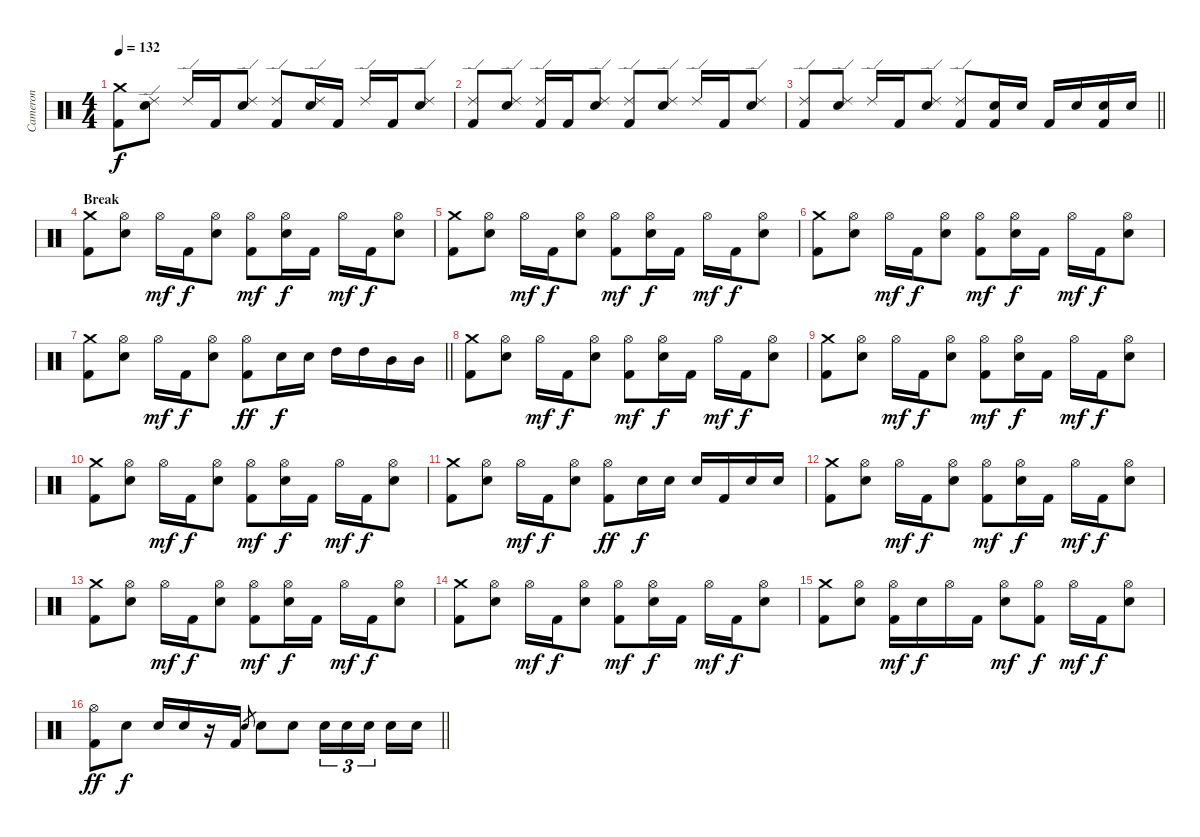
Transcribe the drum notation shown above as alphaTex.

\track ("Cameron" "Cameron") {instrument percussion}
\staff {score}
\articulation defaults
\ts (4 4)
\tempo 132
\clef neutral
\ks c
("Crash medium (hit)" "Kick (hit) 2").8{dy f} ("Ride (edge) 2" "Snare (hit) 2").8 "Ride (edge) 2".16 "Kick (hit) 2".16 ("Ride (edge) 2" "Snare (hit) 2").8 ("Ride (edge) 2" "Kick (hit) 2").8 ("Ride (edge) 2" "Snare (hit) 2").16 "Kick (hit) 2".16 "Ride (edge) 2".16 "Kick (hit) 2".16 ("Ride (edge) 2" "Snare (hit) 2").8 |
("Ride (edge) 2" "Kick (hit) 2").8 ("Ride (edge) 2" "Snare (hit) 2").8 ("Ride (edge) 2" "Kick (hit) 2").16 "Kick (hit) 2".16 ("Ride (edge) 2" "Snare (hit) 2").8 ("Ride (edge) 2" "Kick (hit) 2").8 ("Ride (edge) 2" "Snare (hit) 2").8 "Ride (edge) 2".16 "Kick (hit) 2".16 ("Ride (edge) 2" "Snare (hit) 2").8 |
\barLineRight lightlight
("Ride (edge) 2" "Kick (hit) 2").8 ("Ride (edge) 2" "Snare (hit) 2").8 "Ride (edge) 2".16 "Kick (hit) 2".16 ("Ride (edge) 2" "Snare (hit) 2").8 ("Ride (edge) 2" "Kick (hit) 2").8 ("Snare (hit) 2" "Kick (hit) 2").16 "Snare (hit) 2".16 "Kick (hit) 2".16 "Snare (hit) 2".16 ("Snare (hit) 2" "Kick (hit) 2").16 "Snare (hit) 2".16 |
\section ("" "Break")
("Crash medium (hit)" "Kick (hit) 2").8 ("Hi-Hat (open)" "Snare (hit) 2").8 "Hi-Hat (open)".16{dy mf} "Kick (hit) 2".16{dy f} ("Hi-Hat (open)" "Snare (hit) 2").8 ("Hi-Hat (open)" "Kick (hit) 2").8{dy mf} ("Hi-Hat (open)" "Snare (hit) 2").16{dy f} "Kick (hit) 2".16 "Hi-Hat (open)".16{dy mf} "Kick (hit) 2".16{dy f} ("Hi-Hat (open)" "Snare (hit) 2").8 |
("Crash medium (hit)" "Kick (hit) 2").8 ("Hi-Hat (open)" "Snare (hit) 2").8 "Hi-Hat (open)".16{dy mf} "Kick (hit) 2".16{dy f} ("Hi-Hat (open)" "Snare (hit) 2").8 ("Hi-Hat (open)" "Kick (hit) 2").8{dy mf} ("Hi-Hat (open)" "Snare (hit) 2").16{dy f} "Kick (hit) 2".16 "Hi-Hat (open)".16{dy mf} "Kick (hit) 2".16{dy f} ("Hi-Hat (open)" "Snare (hit) 2").8 |
("Crash medium (hit)" "Kick (hit) 2").8 ("Hi-Hat (open)" "Snare (hit) 2").8 "Hi-Hat (open)".16{dy mf} "Kick (hit) 2".16{dy f} ("Hi-Hat (open)" "Snare (hit) 2").8 ("Hi-Hat (open)" "Kick (hit) 2").8{dy mf} ("Hi-Hat (open)" "Snare (hit) 2").16{dy f} "Kick (hit) 2".16 "Hi-Hat (open)".16{dy mf} "Kick (hit) 2".16{dy f} ("Hi-Hat (open)" "Snare (hit) 2").8 |
\barLineRight lightlight
("Crash medium (hit)" "Kick (hit) 2").8 ("Hi-Hat (open)" "Snare (hit) 2").8 "Hi-Hat (open)".16{dy mf} "Kick (hit) 2".16{dy f} ("Hi-Hat (open)" "Snare (hit) 2").8 ("Hi-Hat (open)" "Kick (hit) 2").8{dy ff} "Snare (hit) 2".16{dy f} "Snare (hit) 2".16 "High Tom (hit)".16 "High Tom (hit)".16 "Mid Tom (hit)".16 "Mid Tom (hit)".16 |
\section ("" "")
("Crash medium (hit)" "Kick (hit) 2").8 ("Hi-Hat (open)" "Snare (hit) 2").8 "Hi-Hat (open)".16{dy mf} "Kick (hit) 2".16{dy f} ("Hi-Hat (open)" "Snare (hit) 2").8 ("Hi-Hat (open)" "Kick (hit) 2").8{dy mf} ("Hi-Hat (open)" "Snare (hit) 2").16{dy f} "Kick (hit) 2".16 "Hi-Hat (open)".16{dy mf} "Kick (hit) 2".16{dy f} ("Hi-Hat (open)" "Snare (hit) 2").8 |
("Crash medium (hit)" "Kick (hit) 2").8 ("Hi-Hat (open)" "Snare (hit) 2").8 "Hi-Hat (open)".16{dy mf} "Kick (hit) 2".16{dy f} ("Hi-Hat (open)" "Snare (hit) 2").8 ("Hi-Hat (open)" "Kick (hit) 2").8{dy mf} ("Hi-Hat (open)" "Snare (hit) 2").16{dy f} "Kick (hit) 2".16 "Hi-Hat (open)".16{dy mf} "Kick (hit) 2".16{dy f} ("Hi-Hat (open)" "Snare (hit) 2").8 |
("Crash medium (hit)" "Kick (hit) 2").8 ("Hi-Hat (open)" "Snare (hit) 2").8 "Hi-Hat (open)".16{dy mf} "Kick (hit) 2".16{dy f} ("Hi-Hat (open)" "Snare (hit) 2").8 ("Hi-Hat (open)" "Kick (hit) 2").8{dy mf} ("Hi-Hat (open)" "Snare (hit) 2").16{dy f} "Kick (hit) 2".16 "Hi-Hat (open)".16{dy mf} "Kick (hit) 2".16{dy f} ("Hi-Hat (open)" "Snare (hit) 2").8 |
("Crash medium (hit)" "Kick (hit) 2").8 ("Hi-Hat (open)" "Snare (hit) 2").8 "Hi-Hat (open)".16{dy mf} "Kick (hit) 2".16{dy f} ("Hi-Hat (open)" "Snare (hit) 2").8 ("Hi-Hat (open)" "Kick (hit) 2").8{dy ff} "Snare (hit) 2".16{dy f} "Snare (hit) 2".16 "Snare (hit) 2".16 "Kick (hit) 2".16 "Snare (hit) 2".16 "Snare (hit) 2".16 |
("Crash medium (hit)" "Kick (hit) 2").8 ("Hi-Hat (open)" "Snare (hit) 2").8 "Hi-Hat (open)".16{dy mf} "Kick (hit) 2".16{dy f} ("Hi-Hat (open)" "Snare (hit) 2").8 ("Hi-Hat (open)" "Kick (hit) 2").8{dy mf} ("Hi-Hat (open)" "Snare (hit) 2").16{dy f} "Kick (hit) 2".16 "Hi-Hat (open)".16{dy mf} "Kick (hit) 2".16{dy f} ("Hi-Hat (open)" "Snare (hit) 2").8 |
("Crash medium (hit)" "Kick (hit) 2").8 ("Hi-Hat (open)" "Snare (hit) 2").8 "Hi-Hat (open)".16{dy mf} "Kick (hit) 2".16{dy f} ("Hi-Hat (open)" "Snare (hit) 2").8 ("Hi-Hat (open)" "Kick (hit) 2").8{dy mf} ("Hi-Hat (open)" "Snare (hit) 2").16{dy f} "Kick (hit) 2".16 "Hi-Hat (open)".16{dy mf} "Kick (hit) 2".16{dy f} ("Hi-Hat (open)" "Snare (hit) 2").8 |
("Crash medium (hit)" "Kick (hit) 2").8 ("Hi-Hat (open)" "Snare (hit) 2").8 "Hi-Hat (open)".16{dy mf} "Kick (hit) 2".16{dy f} ("Hi-Hat (open)" "Snare (hit) 2").8 ("Hi-Hat (open)" "Kick (hit) 2").8{dy mf} ("Hi-Hat (open)" "Snare (hit) 2").16{dy f} "Kick (hit) 2".16 "Hi-Hat (open)".16{dy mf} "Kick (hit) 2".16{dy f} ("Hi-Hat (open)" "Snare (hit) 2").8 |
("Crash medium (hit)" "Kick (hit) 2").8 ("Hi-Hat (open)" "Snare (hit) 2").8 ("Hi-Hat (open)" "Kick (hit) 2").16{dy mf} "Snare (hit) 2".16{dy f} "Hi-Hat (open)".16 "Kick (hit) 2".16 ("Hi-Hat (open)" "Snare (hit) 2").8{dy mf} ("Hi-Hat (open)" "Kick (hit) 2").8{dy f} "Hi-Hat (open)".16{dy mf} "Kick (hit) 2".16{dy f} ("Hi-Hat (open)" "Snare (hit) 2").8 |
\barLineRight lightlight
("Hi-Hat (open)" "Kick (hit) 2").8{dy ff} "Snare (hit) 2".8{dy f} "Snare (hit) 2".16 "Snare (hit) 2".16 r.16 "Kick (hit) 2".16 "Snare (hit) 2".8{gr} "Snare (hit) 2".8 "Snare (hit) 2".8 "Snare (hit) 2".16{tu (3 2)} "Snare (hit) 2".16{tu (3 2)} "Snare (hit) 2".16{tu (3 2) beam splitsecondary} "Snare (hit) 2".16 "Snare (hit) 2".16
